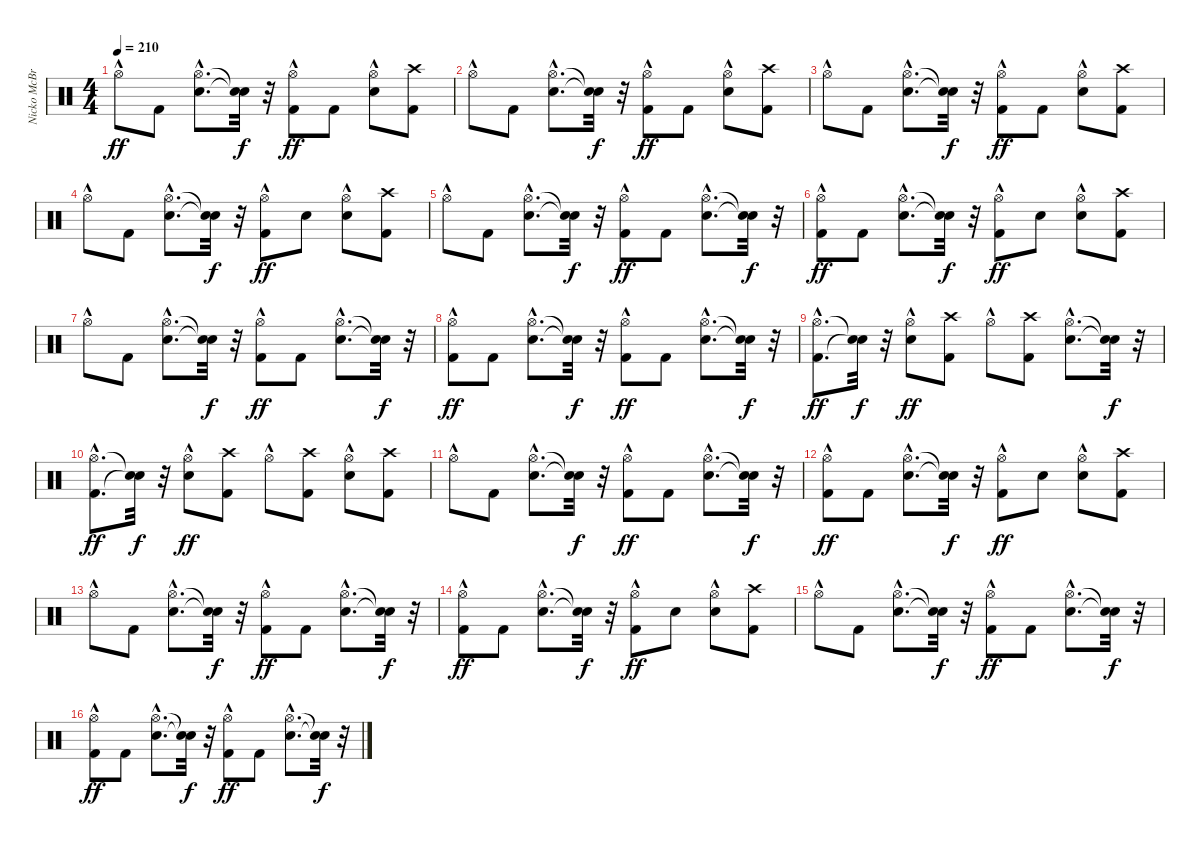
\track ("Nicko McBrain" "Nicko McBr") {instrument percussion}
\staff {score}
\articulation defaults
\ts (4 4)
\tempo 210
\clef neutral
\ks c "Hi-Hat (open)"{hac}.8{dy ff} "Kick (hit) 2".8
("Snare (hit) 2"{hac} "Hi-Hat (open)"{hac}).8{d} ("Snare (hit)"{t} "Snare (hit)"{t}).32{dy f} r.32 ("Kick (hit) 2" "Hi-Hat (open)"{hac}).8{dy ff} "Kick (hit) 2".8 ("Snare (hit) 2" "Hi-Hat (open)"{hac}).8 ("Kick (hit) 2" "Crash high (hit)").8 |
"Hi-Hat (open)"{hac}.8 "Kick (hit) 2".8 ("Snare (hit) 2"{hac} "Hi-Hat (open)"{hac}).8{d} ("Snare (hit)"{t} "Snare (hit)"{t}).32{dy f} r.32 ("Kick (hit) 2" "Hi-Hat (open)"{hac}).8{dy ff} "Kick (hit) 2".8 ("Snare (hit) 2" "Hi-Hat (open)"{hac}).8 ("Kick (hit) 2" "Crash high (hit)").8 |
"Hi-Hat (open)"{hac}.8 "Kick (hit) 2".8 ("Snare (hit) 2"{hac} "Hi-Hat (open)"{hac}).8{d} ("Snare (hit)"{t} "Snare (hit)"{t}).32{dy f} r.32 ("Kick (hit) 2" "Hi-Hat (open)"{hac}).8{dy ff} "Kick (hit) 2".8 ("Snare (hit) 2" "Hi-Hat (open)"{hac}).8 ("Kick (hit) 2" "Crash high (hit)").8 |
"Hi-Hat (open)"{hac}.8 "Kick (hit) 2".8 ("Snare (hit) 2"{hac} "Hi-Hat (open)"{hac}).8{d} ("Snare (hit)"{t} "Snare (hit)"{t}).32{dy f} r.32 ("Kick (hit) 2" "Hi-Hat (open)"{hac}).8{dy ff} "Snare (hit) 2".8 ("Snare (hit) 2" "Hi-Hat (open)"{hac}).8 ("Kick (hit) 2" "Crash high (hit)").8 |
"Hi-Hat (open)"{hac}.8 "Kick (hit) 2".8 ("Snare (hit) 2"{hac} "Hi-Hat (open)"{hac}).8{d} ("Snare (hit)"{t} "Snare (hit)"{t}).32{dy f} r.32 ("Kick (hit) 2" "Hi-Hat (open)"{hac}).8{dy ff} "Kick (hit) 2".8 ("Snare (hit) 2"{hac} "Hi-Hat (open)"{hac}).8{d} ("Snare (hit)"{t} "Snare (hit)"{t}).32{dy f} r.32 |
("Kick (hit) 2" "Hi-Hat (open)"{hac}).8{dy ff} "Kick (hit) 2".8 ("Snare (hit) 2"{hac} "Hi-Hat (open)"{hac}).8{d} ("Snare (hit)"{t} "Snare (hit)"{t}).32{dy f} r.32 ("Kick (hit) 2" "Hi-Hat (open)"{hac}).8{dy ff} "Snare (hit) 2".8 ("Snare (hit) 2" "Hi-Hat (open)"{hac}).8 ("Kick (hit) 2" "Crash high (hit)").8 |
"Hi-Hat (open)"{hac}.8 "Kick (hit) 2".8 ("Snare (hit) 2"{hac} "Hi-Hat (open)"{hac}).8{d} ("Snare (hit)"{t} "Snare (hit)"{t}).32{dy f} r.32 ("Kick (hit) 2" "Hi-Hat (open)"{hac}).8{dy ff} "Kick (hit) 2".8 ("Snare (hit) 2"{hac} "Hi-Hat (open)"{hac}).8{d} ("Snare (hit)"{t} "Snare (hit)"{t}).32{dy f} r.32 |
("Kick (hit) 2" "Hi-Hat (open)"{hac}).8{dy ff} "Kick (hit) 2".8 ("Snare (hit) 2"{hac} "Hi-Hat (open)"{hac}).8{d} ("Snare (hit)"{t} "Snare (hit)"{t}).32{dy f} r.32 ("Kick (hit) 2" "Hi-Hat (open)"{hac}).8{dy ff} "Kick (hit) 2".8 ("Snare (hit) 2"{hac} "Hi-Hat (open)"{hac}).8{d} ("Snare (hit)"{t} "Snare (hit)"{t}).32{dy f} r.32 |
("Kick (hit) 2"{hac} "Hi-Hat (open)"{hac}).8{d dy ff} ("Snare (hit)"{t} "Snare (hit)"{t}).32{dy f} r.32 ("Snare (hit) 2" "Hi-Hat (open)"{hac}).8{dy ff} ("Kick (hit) 2" "Crash high (hit)").8 "Hi-Hat (open)"{hac}.8 ("Kick (hit) 2" "Crash high (hit)").8 ("Snare (hit) 2"{hac} "Hi-Hat (open)"{hac}).8{d} ("Snare (hit)"{t} "Snare (hit)"{t}).32{dy f} r.32 |
("Kick (hit) 2"{hac} "Hi-Hat (open)"{hac}).8{d dy ff} ("Snare (hit)"{t} "Snare (hit)"{t}).32{dy f} r.32 ("Snare (hit) 2" "Hi-Hat (open)"{hac}).8{dy ff} ("Kick (hit) 2" "Crash high (hit)").8 "Hi-Hat (open)"{hac}.8 ("Kick (hit) 2" "Crash high (hit)").8 ("Snare (hit) 2" "Hi-Hat (open)"{hac}).8 ("Kick (hit) 2" "Crash high (hit)").8 |
"Hi-Hat (open)"{hac}.8 "Kick (hit) 2".8 ("Snare (hit) 2"{hac} "Hi-Hat (open)"{hac}).8{d} ("Snare (hit)"{t} "Snare (hit)"{t}).32{dy f} r.32 ("Kick (hit) 2" "Hi-Hat (open)"{hac}).8{dy ff} "Kick (hit) 2".8 ("Snare (hit) 2"{hac} "Hi-Hat (open)"{hac}).8{d} ("Snare (hit)"{t} "Snare (hit)"{t}).32{dy f} r.32 |
("Kick (hit) 2" "Hi-Hat (open)"{hac}).8{dy ff} "Kick (hit) 2".8 ("Snare (hit) 2"{hac} "Hi-Hat (open)"{hac}).8{d} ("Snare (hit)"{t} "Snare (hit)"{t}).32{dy f} r.32 ("Kick (hit) 2" "Hi-Hat (open)"{hac}).8{dy ff} "Snare (hit) 2".8 ("Snare (hit) 2" "Hi-Hat (open)"{hac}).8 ("Kick (hit) 2" "Crash high (hit)").8 |
"Hi-Hat (open)"{hac}.8 "Kick (hit) 2".8 ("Snare (hit) 2"{hac} "Hi-Hat (open)"{hac}).8{d} ("Snare (hit)"{t} "Snare (hit)"{t}).32{dy f} r.32 ("Kick (hit) 2" "Hi-Hat (open)"{hac}).8{dy ff} "Kick (hit) 2".8 ("Snare (hit) 2"{hac} "Hi-Hat (open)"{hac}).8{d} ("Snare (hit)"{t} "Snare (hit)"{t}).32{dy f} r.32 |
("Kick (hit) 2" "Hi-Hat (open)"{hac}).8{dy ff} "Kick (hit) 2".8 ("Snare (hit) 2"{hac} "Hi-Hat (open)"{hac}).8{d} ("Snare (hit)"{t} "Snare (hit)"{t}).32{dy f} r.32 ("Kick (hit) 2" "Hi-Hat (open)"{hac}).8{dy ff} "Snare (hit) 2".8 ("Snare (hit) 2" "Hi-Hat (open)"{hac}).8 ("Kick (hit) 2" "Crash high (hit)").8 |
"Hi-Hat (open)"{hac}.8 "Kick (hit) 2".8 ("Snare (hit) 2"{hac} "Hi-Hat (open)"{hac}).8{d} ("Snare (hit)"{t} "Snare (hit)"{t}).32{dy f} r.32 ("Kick (hit) 2" "Hi-Hat (open)"{hac}).8{dy ff} "Kick (hit) 2".8 ("Snare (hit) 2"{hac} "Hi-Hat (open)"{hac}).8{d} ("Snare (hit)"{t} "Snare (hit)"{t}).32{dy f} r.32 |
("Kick (hit) 2" "Hi-Hat (open)"{hac}).8{dy ff} "Kick (hit) 2".8 ("Snare (hit) 2"{hac} "Hi-Hat (open)"{hac}).8{d} ("Snare (hit)"{t} "Snare (hit)"{t}).32{dy f} r.32 ("Kick (hit) 2" "Hi-Hat (open)"{hac}).8{dy ff} "Kick (hit) 2".8 ("Snare (hit) 2"{hac} "Hi-Hat (open)"{hac}).8{d} ("Snare (hit)"{t} "Snare (hit)"{t}).32{dy f} r.32
